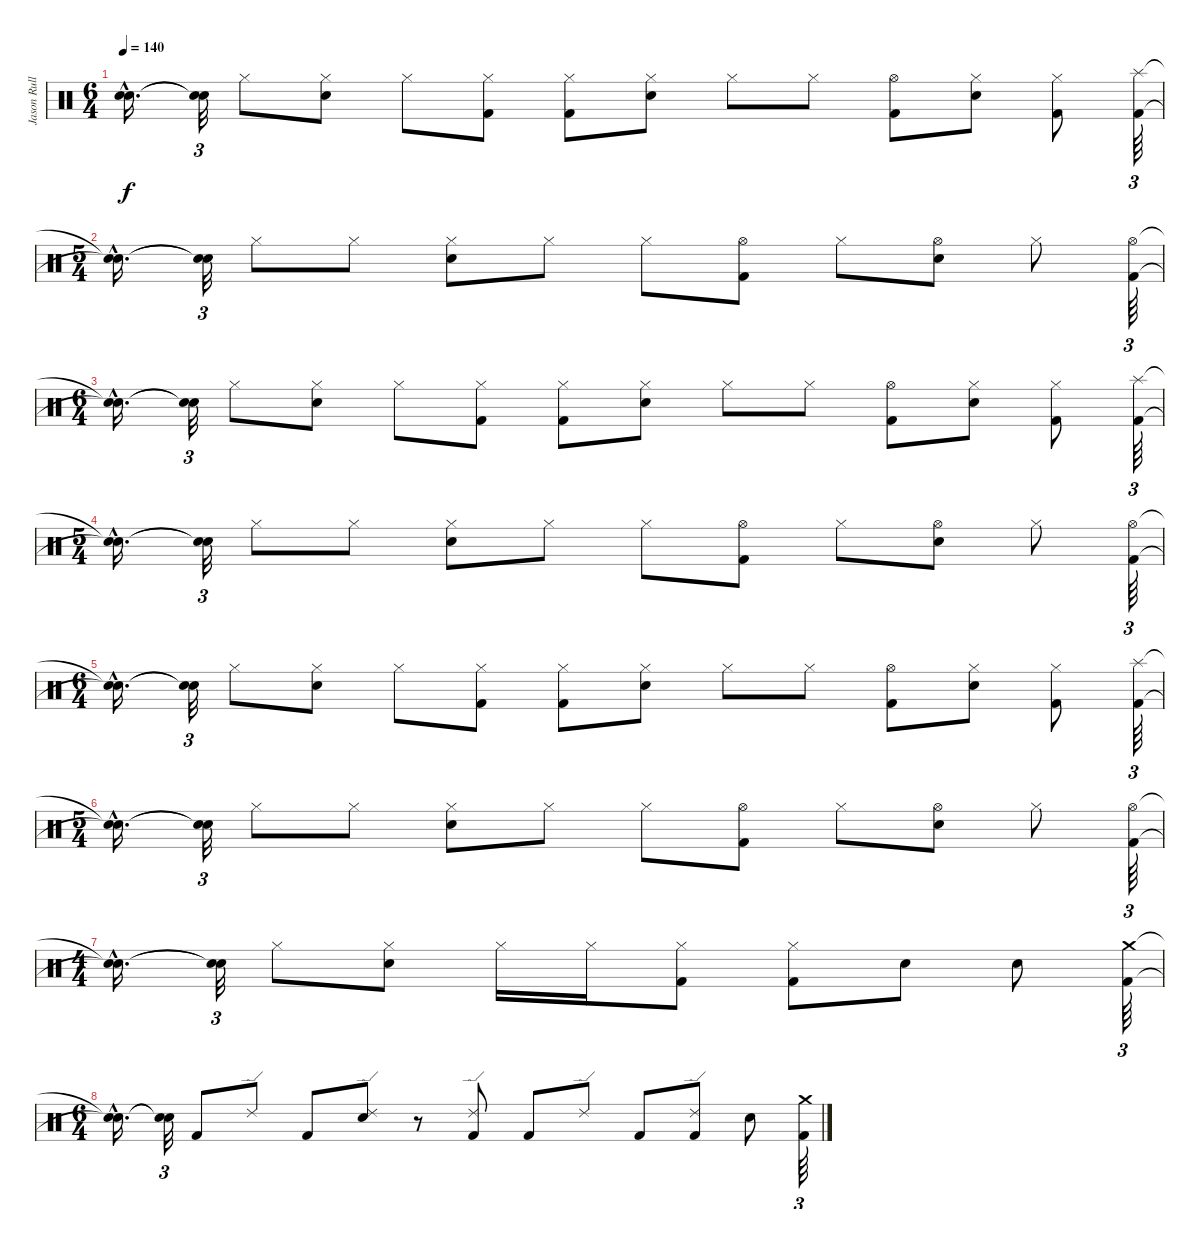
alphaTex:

\track ("Jason Rullo" "Jason Rull") {instrument percussion}
\staff {score}
\articulation defaults
\ts (6 4)
\tempo 140
\clef neutral
\ks c
("Snare (hit)"{hac t} "Snare (hit)"{hac t}).16{d dy f} ("Snare (hit)"{t} "Snare (hit)"{t}).32{tu (3 2)} "Hi-Hat (closed)".8 ("Hi-Hat (closed)" "Electric Snare (hit)").8 "Hi-Hat (closed)".8 ("Hi-Hat (closed)" "Kick (hit) 2").8 ("Hi-Hat (closed)" "Kick (hit) 2").8 ("Hi-Hat (closed)" "Electric Snare (hit)").8 "Hi-Hat (closed)".8 "Hi-Hat (closed)".8 ("Hi-Hat (open)" "Kick (hit) 2").8 ("Hi-Hat (closed)" "Electric Snare (hit)").8 ("Hi-Hat (closed)" "Kick (hit) 2").8 ("Splash (hit)" "Kick (hit) 2").64{tu (3 2)} |
\ts (5 4)
("Snare (hit)"{hac t} "Snare (hit)"{hac t}).16{d} ("Snare (hit)"{t} "Snare (hit)"{t}).32{tu (3 2)} "Hi-Hat (closed)".8 "Hi-Hat (closed)".8 ("Hi-Hat (closed)" "Electric Snare (hit)").8 "Hi-Hat (closed)".8 "Hi-Hat (closed)".8 ("Hi-Hat (open)" "Kick (hit) 2").8 "Hi-Hat (closed)".8 ("Hi-Hat (open)" "Electric Snare (hit)").8 "Hi-Hat (closed)".8 ("Hi-Hat (open)" "Kick (hit) 2").64{tu (3 2)} |
\ts (6 4)
("Snare (hit)"{hac t} "Snare (hit)"{hac t}).16{d} ("Snare (hit)"{t} "Snare (hit)"{t}).32{tu (3 2)} "Hi-Hat (closed)".8 ("Hi-Hat (closed)" "Electric Snare (hit)").8 "Hi-Hat (closed)".8 ("Hi-Hat (closed)" "Kick (hit) 2").8 ("Hi-Hat (closed)" "Kick (hit) 2").8 ("Hi-Hat (closed)" "Electric Snare (hit)").8 "Hi-Hat (closed)".8 "Hi-Hat (closed)".8 ("Hi-Hat (open)" "Kick (hit) 2").8 ("Hi-Hat (closed)" "Electric Snare (hit)").8 ("Hi-Hat (closed)" "Kick (hit) 2").8 ("Splash (hit)" "Kick (hit) 2").64{tu (3 2)} |
\ts (5 4)
("Snare (hit)"{hac t} "Snare (hit)"{hac t}).16{d} ("Snare (hit)"{t} "Snare (hit)"{t}).32{tu (3 2)} "Hi-Hat (closed)".8 "Hi-Hat (closed)".8 ("Hi-Hat (closed)" "Electric Snare (hit)").8 "Hi-Hat (closed)".8 "Hi-Hat (closed)".8 ("Hi-Hat (open)" "Kick (hit) 2").8 "Hi-Hat (closed)".8 ("Hi-Hat (open)" "Electric Snare (hit)").8 "Hi-Hat (closed)".8 ("Hi-Hat (open)" "Kick (hit) 2").64{tu (3 2)} |
\ts (6 4)
("Snare (hit)"{hac t} "Snare (hit)"{hac t}).16{d} ("Snare (hit)"{t} "Snare (hit)"{t}).32{tu (3 2)} "Hi-Hat (closed)".8 ("Hi-Hat (closed)" "Electric Snare (hit)").8 "Hi-Hat (closed)".8 ("Hi-Hat (closed)" "Kick (hit) 2").8 ("Hi-Hat (closed)" "Kick (hit) 2").8 ("Hi-Hat (closed)" "Electric Snare (hit)").8 "Hi-Hat (closed)".8 "Hi-Hat (closed)".8 ("Hi-Hat (open)" "Kick (hit) 2").8 ("Hi-Hat (closed)" "Electric Snare (hit)").8 ("Hi-Hat (closed)" "Kick (hit) 2").8 ("Splash (hit)" "Kick (hit) 2").64{tu (3 2)} |
\ts (5 4)
("Snare (hit)"{hac t} "Snare (hit)"{hac t}).16{d} ("Snare (hit)"{t} "Snare (hit)"{t}).32{tu (3 2)} "Hi-Hat (closed)".8 "Hi-Hat (closed)".8 ("Hi-Hat (closed)" "Electric Snare (hit)").8 "Hi-Hat (closed)".8 "Hi-Hat (closed)".8 ("Hi-Hat (open)" "Kick (hit) 2").8 "Hi-Hat (closed)".8 ("Hi-Hat (open)" "Electric Snare (hit)").8 "Hi-Hat (closed)".8 ("Hi-Hat (open)" "Kick (hit) 2").64{tu (3 2)} |
\ts (4 4)
("Snare (hit)"{hac t} "Snare (hit)"{hac t}).16{d} ("Snare (hit)"{t} "Snare (hit)"{t}).32{tu (3 2)} "Hi-Hat (closed)".8 ("Hi-Hat (closed)" "Electric Snare (hit)").8 "Hi-Hat (closed)".16 "Hi-Hat (closed)".16 ("Hi-Hat (closed)" "Kick (hit) 2").8 ("Hi-Hat (closed)" "Kick (hit) 2").8 "Electric Snare (hit)".8 "Electric Snare (hit)".8 ("Crash medium (hit)" "Kick (hit) 2").64{tu (3 2)} |
\ts (6 4)
("Snare (hit)"{hac t} "Snare (hit)"{hac t}).16{d} ("Snare (hit)"{t} "Snare (hit)"{t}).32{tu (3 2)} "Kick (hit) 2".8 "Ride (edge) 2".8 "Kick (hit) 2".8 ("Ride (edge) 2" "Electric Snare (hit)").8 r.8 ("Ride (edge) 2" "Kick (hit) 2").8 "Kick (hit) 2".8 "Ride (edge) 2".8 "Kick (hit) 2".8 ("Ride (edge) 2" "Kick (hit) 2").8 "Electric Snare (hit)".8 ("Crash medium (hit)" "Kick (hit) 2").64{tu (3 2)}
